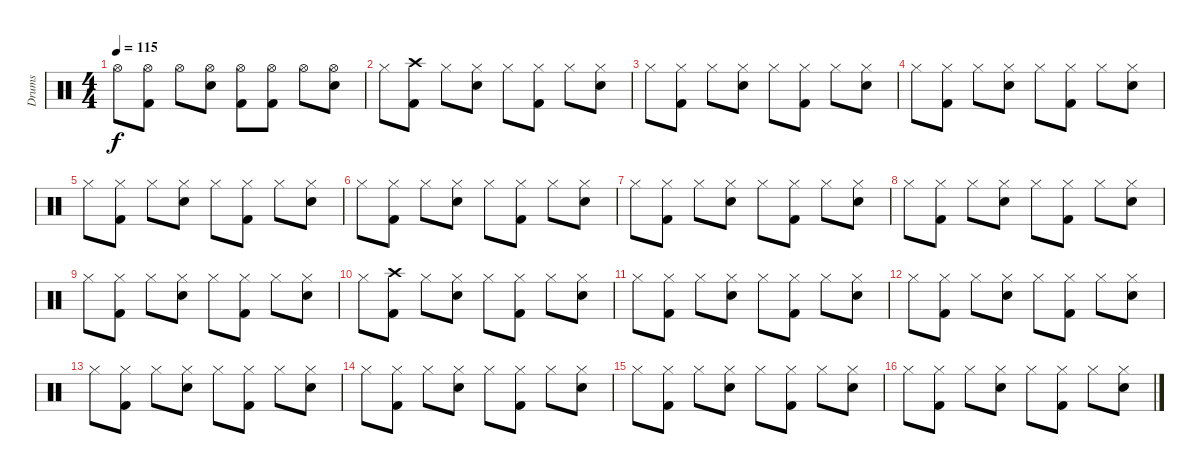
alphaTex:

\track ("Drums" "Drums") {instrument percussion}
\staff {score}
\articulation defaults
\ts (4 4)
\tempo 115
\clef neutral
\ks c "Hi-Hat (open)".8{dy f}
("Kick (hit) 2" "Hi-Hat (open)").8 "Hi-Hat (open)".8 ("Snare (hit) 2" "Hi-Hat (open)").8 ("Kick (hit) 2" "Hi-Hat (open)").8 ("Kick (hit) 2" "Hi-Hat (open)").8 "Hi-Hat (open)".8 ("Snare (hit) 2" "Hi-Hat (open)").8 |
"Hi-Hat (closed)".8 ("Kick (hit) 2" "Crash high (hit)").8 "Hi-Hat (closed)".8 ("Snare (hit) 2" "Hi-Hat (closed)").8 "Hi-Hat (closed)".8 ("Kick (hit) 2" "Hi-Hat (closed)").8 "Hi-Hat (closed)".8 ("Snare (hit) 2" "Hi-Hat (closed)").8 |
"Hi-Hat (closed)".8 ("Kick (hit) 2" "Hi-Hat (closed)").8 "Hi-Hat (closed)".8 ("Snare (hit) 2" "Hi-Hat (closed)").8 "Hi-Hat (closed)".8 ("Kick (hit) 2" "Hi-Hat (closed)").8 "Hi-Hat (closed)".8 ("Snare (hit) 2" "Hi-Hat (closed)").8 |
"Hi-Hat (closed)".8 ("Kick (hit) 2" "Hi-Hat (closed)").8 "Hi-Hat (closed)".8 ("Snare (hit) 2" "Hi-Hat (closed)").8 "Hi-Hat (closed)".8 ("Kick (hit) 2" "Hi-Hat (closed)").8 "Hi-Hat (closed)".8 ("Snare (hit) 2" "Hi-Hat (closed)").8 |
"Hi-Hat (closed)".8 ("Kick (hit) 2" "Hi-Hat (closed)").8 "Hi-Hat (closed)".8 ("Snare (hit) 2" "Hi-Hat (closed)").8 "Hi-Hat (closed)".8 ("Kick (hit) 2" "Hi-Hat (closed)").8 "Hi-Hat (closed)".8 ("Snare (hit) 2" "Hi-Hat (closed)").8 |
"Hi-Hat (closed)".8 ("Kick (hit) 2" "Hi-Hat (closed)").8 "Hi-Hat (closed)".8 ("Snare (hit) 2" "Hi-Hat (closed)").8 "Hi-Hat (closed)".8 ("Kick (hit) 2" "Hi-Hat (closed)").8 "Hi-Hat (closed)".8 ("Snare (hit) 2" "Hi-Hat (closed)").8 |
"Hi-Hat (closed)".8 ("Kick (hit) 2" "Hi-Hat (closed)").8 "Hi-Hat (closed)".8 ("Snare (hit) 2" "Hi-Hat (closed)").8 "Hi-Hat (closed)".8 ("Kick (hit) 2" "Hi-Hat (closed)").8 "Hi-Hat (closed)".8 ("Snare (hit) 2" "Hi-Hat (closed)").8 |
"Hi-Hat (closed)".8 ("Kick (hit) 2" "Hi-Hat (closed)").8 "Hi-Hat (closed)".8 ("Snare (hit) 2" "Hi-Hat (closed)").8 "Hi-Hat (closed)".8 ("Kick (hit) 2" "Hi-Hat (closed)").8 "Hi-Hat (closed)".8 ("Snare (hit) 2" "Hi-Hat (closed)").8 |
"Hi-Hat (closed)".8 ("Kick (hit) 2" "Hi-Hat (closed)").8 "Hi-Hat (closed)".8 ("Snare (hit) 2" "Hi-Hat (closed)").8 "Hi-Hat (closed)".8 ("Kick (hit) 2" "Hi-Hat (closed)").8 "Hi-Hat (closed)".8 ("Snare (hit) 2" "Hi-Hat (closed)").8 |
"Hi-Hat (closed)".8 ("Kick (hit) 2" "Crash high (hit)").8 "Hi-Hat (closed)".8 ("Snare (hit) 2" "Hi-Hat (closed)").8 "Hi-Hat (closed)".8 ("Kick (hit) 2" "Hi-Hat (closed)").8 "Hi-Hat (closed)".8 ("Snare (hit) 2" "Hi-Hat (closed)").8 |
"Hi-Hat (closed)".8 ("Kick (hit) 2" "Hi-Hat (closed)").8 "Hi-Hat (closed)".8 ("Snare (hit) 2" "Hi-Hat (closed)").8 "Hi-Hat (closed)".8 ("Kick (hit) 2" "Hi-Hat (closed)").8 "Hi-Hat (closed)".8 ("Snare (hit) 2" "Hi-Hat (closed)").8 |
"Hi-Hat (closed)".8 ("Kick (hit) 2" "Hi-Hat (closed)").8 "Hi-Hat (closed)".8 ("Snare (hit) 2" "Hi-Hat (closed)").8 "Hi-Hat (closed)".8 ("Kick (hit) 2" "Hi-Hat (closed)").8 "Hi-Hat (closed)".8 ("Snare (hit) 2" "Hi-Hat (closed)").8 |
"Hi-Hat (closed)".8 ("Kick (hit) 2" "Hi-Hat (closed)").8 "Hi-Hat (closed)".8 ("Snare (hit) 2" "Hi-Hat (closed)").8 "Hi-Hat (closed)".8 ("Kick (hit) 2" "Hi-Hat (closed)").8 "Hi-Hat (closed)".8 ("Snare (hit) 2" "Hi-Hat (closed)").8 |
"Hi-Hat (closed)".8 ("Kick (hit) 2" "Hi-Hat (closed)").8 "Hi-Hat (closed)".8 ("Snare (hit) 2" "Hi-Hat (closed)").8 "Hi-Hat (closed)".8 ("Kick (hit) 2" "Hi-Hat (closed)").8 "Hi-Hat (closed)".8 ("Snare (hit) 2" "Hi-Hat (closed)").8 |
"Hi-Hat (closed)".8 ("Kick (hit) 2" "Hi-Hat (closed)").8 "Hi-Hat (closed)".8 ("Snare (hit) 2" "Hi-Hat (closed)").8 "Hi-Hat (closed)".8 ("Kick (hit) 2" "Hi-Hat (closed)").8 "Hi-Hat (closed)".8 ("Snare (hit) 2" "Hi-Hat (closed)").8 |
"Hi-Hat (closed)".8 ("Kick (hit) 2" "Hi-Hat (closed)").8 "Hi-Hat (closed)".8 ("Snare (hit) 2" "Hi-Hat (closed)").8 "Hi-Hat (closed)".8 ("Kick (hit) 2" "Hi-Hat (closed)").8 "Hi-Hat (closed)".8 ("Snare (hit) 2" "Hi-Hat (closed)").8
